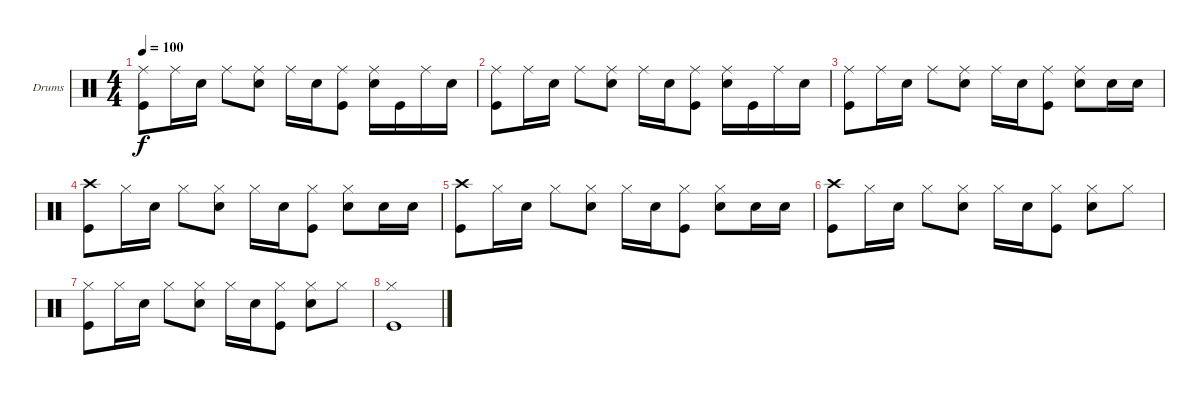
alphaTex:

\bracketExtendMode groupsimilarinstruments
\firstSystemTrackNameOrientation horizontal
\otherSystemsTrackNameOrientation horizontal
\track ("Fabrizio" "Drums") {instrument percussion}
\staff {score}
\articulation defaults
\ts (4 4)
\tempo 100
\clef neutral
\ks c
("Ride (middle)" "Kick (hit)").8{dy f} "Ride (middle)".16 "Snare (hit) 2".16 "Ride (middle)".8 ("Ride (middle)" "Snare (hit) 2").8 "Ride (middle)".16 "Snare (hit) 2".16 ("Ride (middle)" "Kick (hit)").8 ("Ride (middle)" "Snare (hit) 2").16 "Kick (hit)".16 "Ride (middle)".16 "Snare (hit) 2".16 |
("Ride (middle)" "Kick (hit)").8 "Ride (middle)".16 "Snare (hit) 2".16 "Ride (middle)".8 ("Ride (middle)" "Snare (hit) 2").8 "Ride (middle)".16 "Snare (hit) 2".16 ("Ride (middle)" "Kick (hit)").8 ("Ride (middle)" "Snare (hit) 2").16 "Kick (hit)".16 "Ride (middle)".16 "Snare (hit) 2".16 |
("Ride (middle)" "Kick (hit)").8 "Ride (middle)".16 "Snare (hit) 2".16 "Ride (middle)".8 ("Ride (middle)" "Snare (hit) 2").8 "Ride (middle)".16 "Snare (hit) 2".16 ("Ride (middle)" "Kick (hit)").8 ("Ride (middle)" "Snare (hit) 2").8 "Snare (hit) 2".16 "Snare (hit) 2".16 |
("Crash high (hit)" "Kick (hit)").8 "Hi-Hat (closed)".16 "Snare (hit) 2".16 "Hi-Hat (closed)".8 ("Hi-Hat (closed)" "Snare (hit) 2").8 "Hi-Hat (closed)".16 "Snare (hit) 2".16 ("Hi-Hat (closed)" "Kick (hit)").8 ("Hi-Hat (closed)" "Snare (hit) 2").8 "Snare (hit) 2".16 "Snare (hit) 2".16 |
("Crash high (hit)" "Kick (hit)").8 "Hi-Hat (closed)".16 "Snare (hit) 2".16 "Hi-Hat (closed)".8 ("Hi-Hat (closed)" "Snare (hit) 2").8 "Hi-Hat (closed)".16 "Snare (hit) 2".16 ("Hi-Hat (closed)" "Kick (hit)").8 ("Hi-Hat (closed)" "Snare (hit) 2").8 "Snare (hit) 2".16 "Snare (hit) 2".16 |
("Crash high (hit)" "Kick (hit)").8 "Hi-Hat (closed)".16 "Snare (hit) 2".16 "Hi-Hat (closed)".8 ("Hi-Hat (closed)" "Snare (hit) 2").8 "Hi-Hat (closed)".16 "Snare (hit) 2".16 ("Hi-Hat (closed)" "Kick (hit)").8 ("Hi-Hat (closed)" "Snare (hit) 2").8 "Hi-Hat (closed)".8 |
("Hi-Hat (closed)" "Kick (hit)").8 "Hi-Hat (closed)".16 "Snare (hit) 2".16 "Hi-Hat (closed)".8 ("Hi-Hat (closed)" "Snare (hit) 2").8 "Hi-Hat (closed)".16 "Snare (hit) 2".16 ("Hi-Hat (closed)" "Kick (hit)").8 ("Hi-Hat (closed)" "Snare (hit) 2").8 "Hi-Hat (closed)".8 |
("Hi-Hat (closed)" "Kick (hit)").1
